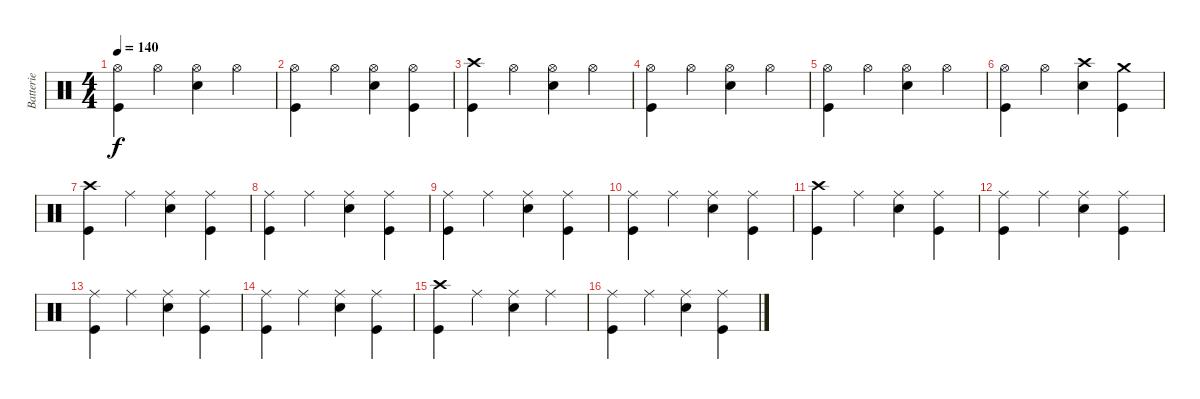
\track ("Batterie" "Batterie") {instrument percussion}
\staff {score}
\articulation defaults
\ts (4 4)
\tempo 140
\clef neutral
\ks c
("Hi-Hat (open)" "Kick (hit)").4{dy f} "Hi-Hat (open)".4 ("Hi-Hat (open)" "Electric Snare (hit)").4 "Hi-Hat (open)".4 |
("Hi-Hat (open)" "Kick (hit)").4 "Hi-Hat (open)".4 ("Hi-Hat (open)" "Electric Snare (hit)").4 ("Hi-Hat (open)" "Kick (hit)").4 |
("Crash high (hit)" "Kick (hit)").4 "Hi-Hat (open)".4 ("Hi-Hat (open)" "Electric Snare (hit)").4 "Hi-Hat (open)".4 |
("Hi-Hat (open)" "Kick (hit)").4 "Hi-Hat (open)".4 ("Hi-Hat (open)" "Electric Snare (hit)").4 "Hi-Hat (open)".4 |
("Hi-Hat (open)" "Kick (hit)").4 "Hi-Hat (open)".4 ("Hi-Hat (open)" "Electric Snare (hit)").4 "Hi-Hat (open)".4 |
("Hi-Hat (open)" "Kick (hit)").4 "Hi-Hat (open)".4 ("Crash high (hit)" "Electric Snare (hit)").4 ("Crash medium (hit)" "Kick (hit)").4 |
("Crash high (hit)" "Kick (hit)").4 "Ride (middle)".4 ("Ride (middle)" "Electric Snare (hit)").4 ("Ride (middle)" "Kick (hit)").4 |
("Ride (middle)" "Kick (hit)").4 "Ride (middle)".4 ("Ride (middle)" "Electric Snare (hit)").4 ("Ride (middle)" "Kick (hit)").4 |
("Ride (middle)" "Kick (hit)").4 "Ride (middle)".4 ("Ride (middle)" "Electric Snare (hit)").4 ("Ride (middle)" "Kick (hit)").4 |
("Ride (middle)" "Kick (hit)").4 "Ride (middle)".4 ("Ride (middle)" "Electric Snare (hit)").4 ("Ride (middle)" "Kick (hit)").4 |
("Crash high (hit)" "Kick (hit)").4 "Ride (middle)".4 ("Ride (middle)" "Electric Snare (hit)").4 ("Ride (middle)" "Kick (hit)").4 |
("Ride (middle)" "Kick (hit)").4 "Ride (middle)".4 ("Ride (middle)" "Electric Snare (hit)").4 ("Ride (middle)" "Kick (hit)").4 |
("Ride (middle)" "Kick (hit)").4 "Ride (middle)".4 ("Ride (middle)" "Electric Snare (hit)").4 ("Ride (middle)" "Kick (hit)").4 |
("Ride (middle)" "Kick (hit)").4 "Ride (middle)".4 ("Ride (middle)" "Electric Snare (hit)").4 ("Ride (middle)" "Kick (hit)").4 |
("Crash high (hit)" "Kick (hit)").4 "Ride (middle)".4 ("Ride (middle)" "Electric Snare (hit)").4 "Ride (middle)".4 |
("Ride (middle)" "Kick (hit)").4 "Ride (middle)".4 ("Ride (middle)" "Electric Snare (hit)").4 ("Ride (middle)" "Kick (hit)").4
